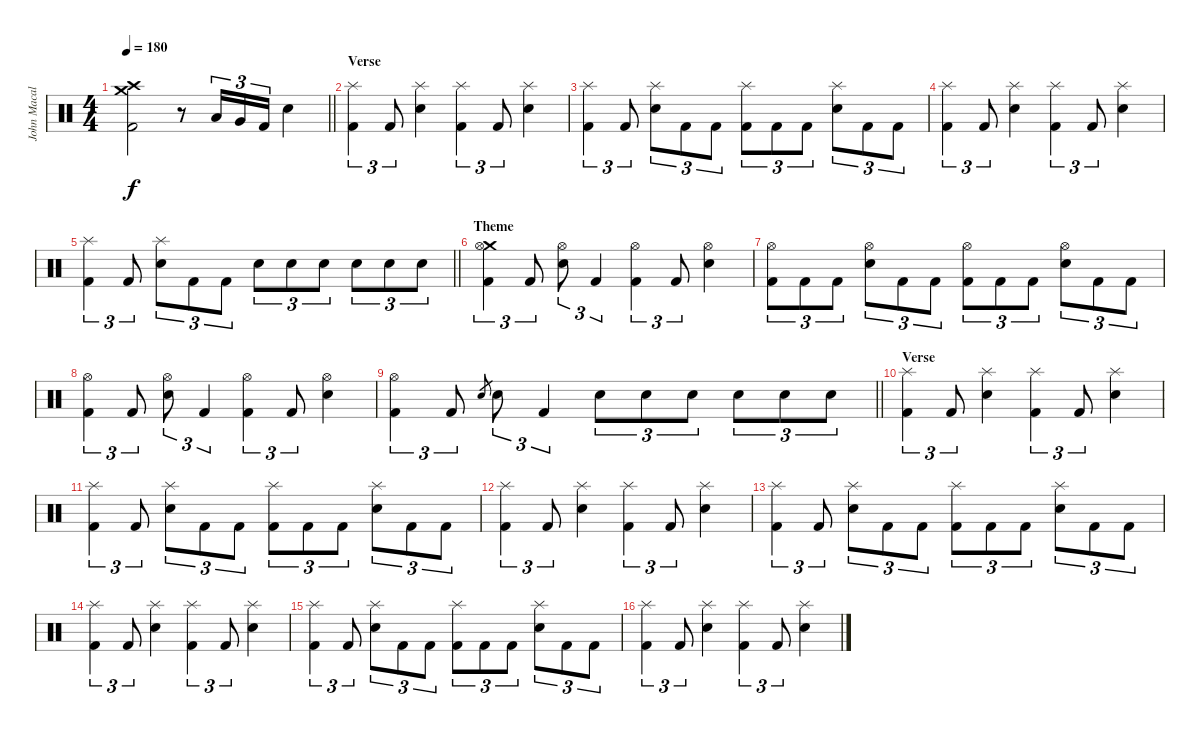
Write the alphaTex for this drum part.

\track ("John Macaluso" "John Macal") {instrument percussion}
\staff {score}
\articulation defaults
\ts (4 4)
\tempo 180
\clef neutral
\barLineRight lightlight
\ks c
("Crash medium (hit)" "Crash high (hit)" "Kick (hit) 2").2{dy f} r.8 "Low Tom (hit)".16{tu (3 2)} "Very Low Tom (hit)".16{tu (3 2)} "Kick (hit) 2".16{tu (3 2)} "Snare (hit) 2".4 |
\section ("" "Verse")
("Splash (hit)" "Kick (hit) 2").4{tu (3 2)} "Kick (hit) 2".8{tu (3 2)} ("Splash (hit)" "Snare (hit) 2").4 ("Splash (hit)" "Kick (hit) 2").4{tu (3 2)} "Kick (hit) 2".8{tu (3 2)} ("Splash (hit)" "Snare (hit) 2").4 |
("Splash (hit)" "Kick (hit) 2").4{tu (3 2)} "Kick (hit) 2".8{tu (3 2)} ("Splash (hit)" "Snare (hit) 2").8{tu (3 2)} "Kick (hit) 2".8{tu (3 2)} "Kick (hit) 2".8{tu (3 2)} ("Splash (hit)" "Kick (hit) 2").8{tu (3 2)} "Kick (hit) 2".8{tu (3 2)} "Kick (hit) 2".8{tu (3 2)} ("Splash (hit)" "Snare (hit) 2").8{tu (3 2)} "Kick (hit) 2".8{tu (3 2)} "Kick (hit) 2".8{tu (3 2)} |
("Splash (hit)" "Kick (hit) 2").4{tu (3 2)} "Kick (hit) 2".8{tu (3 2)} ("Splash (hit)" "Snare (hit) 2").4 ("Splash (hit)" "Kick (hit) 2").4{tu (3 2)} "Kick (hit) 2".8{tu (3 2)} ("Splash (hit)" "Snare (hit) 2").4 |
\barLineRight lightlight
("Splash (hit)" "Kick (hit) 2").4{tu (3 2)} "Kick (hit) 2".8{tu (3 2)} ("Splash (hit)" "Snare (hit) 2").8{tu (3 2)} "Kick (hit) 2".8{tu (3 2)} "Kick (hit) 2".8{tu (3 2)} "Snare (hit) 2".8{tu (3 2)} "Snare (hit) 2".8{tu (3 2)} "Snare (hit) 2".8{tu (3 2)} "Snare (hit) 2".8{tu (3 2)} "Snare (hit) 2".8{tu (3 2)} "Snare (hit) 2".8{tu (3 2)} |
\section ("" "Theme")
("Crash medium (hit)" "Hi-Hat (open)" "Kick (hit) 2").4{tu (3 2)} "Kick (hit) 2".8{tu (3 2)} ("Hi-Hat (open)" "Snare (hit) 2").8{tu (3 2)} "Kick (hit) 2".4{tu (3 2)} ("Hi-Hat (open)" "Kick (hit) 2").4{tu (3 2)} "Kick (hit) 2".8{tu (3 2)} ("Hi-Hat (open)" "Snare (hit) 2").4 |
("Hi-Hat (open)" "Kick (hit) 2").8{tu (3 2)} "Kick (hit) 2".8{tu (3 2)} "Kick (hit) 2".8{tu (3 2)} ("Hi-Hat (open)" "Snare (hit) 2").8{tu (3 2)} "Kick (hit) 2".8{tu (3 2)} "Kick (hit) 2".8{tu (3 2)} ("Hi-Hat (open)" "Kick (hit) 2").8{tu (3 2)} "Kick (hit) 2".8{tu (3 2)} "Kick (hit) 2".8{tu (3 2)} ("Hi-Hat (open)" "Snare (hit) 2").8{tu (3 2)} "Kick (hit) 2".8{tu (3 2)} "Kick (hit) 2".8{tu (3 2)} |
("Hi-Hat (open)" "Kick (hit) 2").4{tu (3 2)} "Kick (hit) 2".8{tu (3 2)} ("Hi-Hat (open)" "Snare (hit) 2").8{tu (3 2)} "Kick (hit) 2".4{tu (3 2)} ("Hi-Hat (open)" "Kick (hit) 2").4{tu (3 2)} "Kick (hit) 2".8{tu (3 2)} ("Hi-Hat (open)" "Snare (hit) 2").4 |
\barLineRight lightlight
("Hi-Hat (open)" "Kick (hit) 2").4{tu (3 2)} "Kick (hit) 2".8{tu (3 2)} "Snare (hit) 2".8{gr} "Snare (hit) 2".8{tu (3 2)} "Kick (hit) 2".4{tu (3 2)} "Snare (hit) 2".8{tu (3 2)} "Snare (hit) 2".8{tu (3 2)} "Snare (hit) 2".8{tu (3 2)} "Snare (hit) 2".8{tu (3 2)} "Snare (hit) 2".8{tu (3 2)} "Snare (hit) 2".8{tu (3 2)} |
\section ("" "Verse")
("Splash (hit)" "Kick (hit) 2").4{tu (3 2)} "Kick (hit) 2".8{tu (3 2)} ("Splash (hit)" "Snare (hit) 2").4 ("Splash (hit)" "Kick (hit) 2").4{tu (3 2)} "Kick (hit) 2".8{tu (3 2)} ("Splash (hit)" "Snare (hit) 2").4 |
("Splash (hit)" "Kick (hit) 2").4{tu (3 2)} "Kick (hit) 2".8{tu (3 2)} ("Splash (hit)" "Snare (hit) 2").8{tu (3 2)} "Kick (hit) 2".8{tu (3 2)} "Kick (hit) 2".8{tu (3 2)} ("Splash (hit)" "Kick (hit) 2").8{tu (3 2)} "Kick (hit) 2".8{tu (3 2)} "Kick (hit) 2".8{tu (3 2)} ("Splash (hit)" "Snare (hit) 2").8{tu (3 2)} "Kick (hit) 2".8{tu (3 2)} "Kick (hit) 2".8{tu (3 2)} |
("Splash (hit)" "Kick (hit) 2").4{tu (3 2)} "Kick (hit) 2".8{tu (3 2)} ("Splash (hit)" "Snare (hit) 2").4 ("Splash (hit)" "Kick (hit) 2").4{tu (3 2)} "Kick (hit) 2".8{tu (3 2)} ("Splash (hit)" "Snare (hit) 2").4 |
("Splash (hit)" "Kick (hit) 2").4{tu (3 2)} "Kick (hit) 2".8{tu (3 2)} ("Splash (hit)" "Snare (hit) 2").8{tu (3 2)} "Kick (hit) 2".8{tu (3 2)} "Kick (hit) 2".8{tu (3 2)} ("Splash (hit)" "Kick (hit) 2").8{tu (3 2)} "Kick (hit) 2".8{tu (3 2)} "Kick (hit) 2".8{tu (3 2)} ("Splash (hit)" "Snare (hit) 2").8{tu (3 2)} "Kick (hit) 2".8{tu (3 2)} "Kick (hit) 2".8{tu (3 2)} |
("Splash (hit)" "Kick (hit) 2").4{tu (3 2)} "Kick (hit) 2".8{tu (3 2)} ("Splash (hit)" "Snare (hit) 2").4 ("Splash (hit)" "Kick (hit) 2").4{tu (3 2)} "Kick (hit) 2".8{tu (3 2)} ("Splash (hit)" "Snare (hit) 2").4 |
("Splash (hit)" "Kick (hit) 2").4{tu (3 2)} "Kick (hit) 2".8{tu (3 2)} ("Splash (hit)" "Snare (hit) 2").8{tu (3 2)} "Kick (hit) 2".8{tu (3 2)} "Kick (hit) 2".8{tu (3 2)} ("Splash (hit)" "Kick (hit) 2").8{tu (3 2)} "Kick (hit) 2".8{tu (3 2)} "Kick (hit) 2".8{tu (3 2)} ("Splash (hit)" "Snare (hit) 2").8{tu (3 2)} "Kick (hit) 2".8{tu (3 2)} "Kick (hit) 2".8{tu (3 2)} |
("Splash (hit)" "Kick (hit) 2").4{tu (3 2)} "Kick (hit) 2".8{tu (3 2)} ("Splash (hit)" "Snare (hit) 2").4 ("Splash (hit)" "Kick (hit) 2").4{tu (3 2)} "Kick (hit) 2".8{tu (3 2)} ("Splash (hit)" "Snare (hit) 2").4
